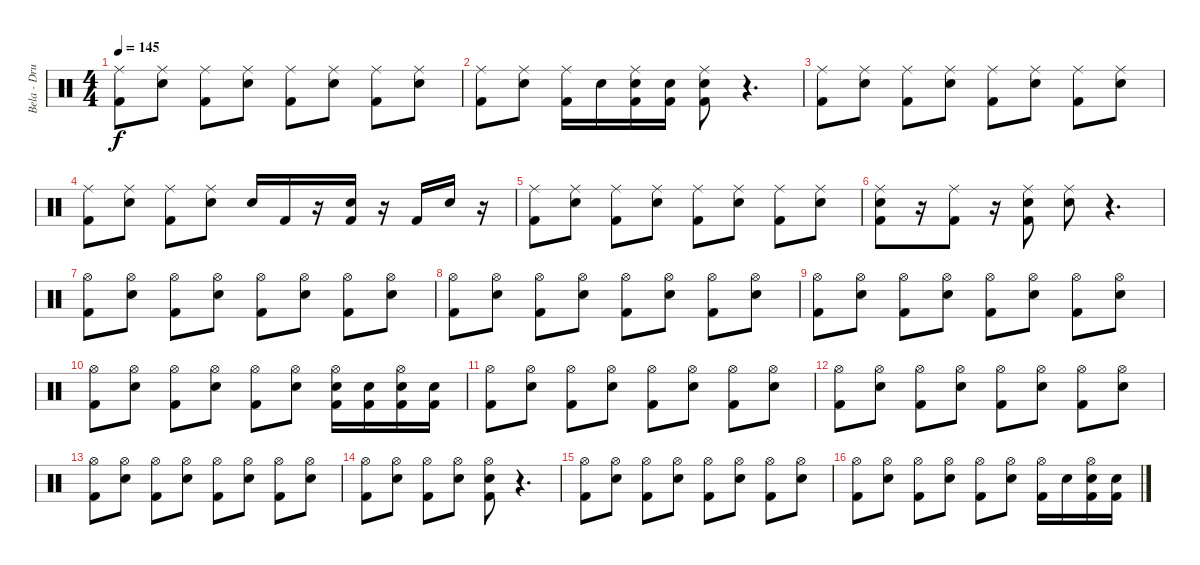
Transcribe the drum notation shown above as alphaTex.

\track ("Bela - Drums" "Bela - Dru") {instrument percussion}
\staff {score}
\articulation defaults
\ts (4 4)
\tempo 145
\clef neutral
\ks c
("Ride (middle)" "Kick (hit) 2").8{dy f} ("Ride (middle)" "Electric Snare (hit)").8 ("Ride (middle)" "Kick (hit) 2").8 ("Ride (middle)" "Electric Snare (hit)").8 ("Ride (middle)" "Kick (hit) 2").8 ("Ride (middle)" "Electric Snare (hit)").8 ("Ride (middle)" "Kick (hit) 2").8 ("Ride (middle)" "Electric Snare (hit)").8 |
("Ride (middle)" "Kick (hit) 2").8 ("Ride (middle)" "Electric Snare (hit)").8 ("Ride (middle)" "Kick (hit) 2").16 "Electric Snare (hit)".16 ("Electric Snare (hit)" "Kick (hit) 2" "Ride (middle)").16 ("Electric Snare (hit)" "Kick (hit) 2").16 ("Kick (hit) 2" "Ride (middle)" "Electric Snare (hit)").8 r.4{d} |
("Ride (middle)" "Kick (hit) 2").8 ("Ride (middle)" "Electric Snare (hit)").8 ("Ride (middle)" "Kick (hit) 2").8 ("Ride (middle)" "Electric Snare (hit)").8 ("Ride (middle)" "Kick (hit) 2").8 ("Ride (middle)" "Electric Snare (hit)").8 ("Ride (middle)" "Kick (hit) 2").8 ("Ride (middle)" "Electric Snare (hit)").8 |
("Ride (middle)" "Kick (hit) 2").8 ("Ride (middle)" "Electric Snare (hit)").8 ("Ride (middle)" "Kick (hit) 2").8 ("Ride (middle)" "Electric Snare (hit)").8 "Electric Snare (hit)".16 "Kick (hit) 2".16 r.16 ("Electric Snare (hit)" "Kick (hit) 2").16 r.16 "Kick (hit) 2".16 "Electric Snare (hit)".16 r.16 |
("Ride (middle)" "Kick (hit) 2").8 ("Ride (middle)" "Electric Snare (hit)").8 ("Ride (middle)" "Kick (hit) 2").8 ("Ride (middle)" "Electric Snare (hit)").8 ("Ride (middle)" "Kick (hit) 2").8 ("Ride (middle)" "Electric Snare (hit)").8 ("Ride (middle)" "Kick (hit) 2").8 ("Electric Snare (hit)" "Ride (middle)").8 |
("Ride (middle)" "Kick (hit) 2" "Electric Snare (hit)").8 r.16 ("Ride (middle)" "Kick (hit) 2").8 r.16 ("Electric Snare (hit)" "Ride (middle)" "Kick (hit) 2").8 ("Electric Snare (hit)" "Ride (middle)").8 r.4{d} |
("Hi-Hat (open)" "Kick (hit) 2").8 ("Hi-Hat (open)" "Electric Snare (hit)").8 ("Hi-Hat (open)" "Kick (hit) 2").8 ("Hi-Hat (open)" "Electric Snare (hit)").8 ("Hi-Hat (open)" "Kick (hit) 2").8 ("Hi-Hat (open)" "Electric Snare (hit)").8 ("Hi-Hat (open)" "Kick (hit) 2").8 ("Hi-Hat (open)" "Electric Snare (hit)").8 |
("Hi-Hat (open)" "Kick (hit) 2").8 ("Hi-Hat (open)" "Electric Snare (hit)").8 ("Hi-Hat (open)" "Kick (hit) 2").8 ("Hi-Hat (open)" "Electric Snare (hit)").8 ("Hi-Hat (open)" "Kick (hit) 2").8 ("Hi-Hat (open)" "Electric Snare (hit)").8 ("Hi-Hat (open)" "Kick (hit) 2").8 ("Hi-Hat (open)" "Electric Snare (hit)").8 |
("Hi-Hat (open)" "Kick (hit) 2").8 ("Hi-Hat (open)" "Electric Snare (hit)").8 ("Hi-Hat (open)" "Kick (hit) 2").8 ("Hi-Hat (open)" "Electric Snare (hit)").8 ("Hi-Hat (open)" "Kick (hit) 2").8 ("Hi-Hat (open)" "Electric Snare (hit)").8 ("Hi-Hat (open)" "Kick (hit) 2").8 ("Hi-Hat (open)" "Electric Snare (hit)").8 |
("Hi-Hat (open)" "Kick (hit) 2").8 ("Hi-Hat (open)" "Electric Snare (hit)").8 ("Hi-Hat (open)" "Kick (hit) 2").8 ("Hi-Hat (open)" "Electric Snare (hit)").8 ("Hi-Hat (open)" "Kick (hit) 2").8 ("Hi-Hat (open)" "Electric Snare (hit)").8 ("Electric Snare (hit)" "Hi-Hat (open)" "Kick (hit) 2").16 ("Kick (hit) 2" "Electric Snare (hit)").16 ("Kick (hit) 2" "Hi-Hat (open)" "Electric Snare (hit)").16 ("Electric Snare (hit)" "Kick (hit) 2").16 |
("Hi-Hat (open)" "Kick (hit) 2").8 ("Hi-Hat (open)" "Electric Snare (hit)").8 ("Hi-Hat (open)" "Kick (hit) 2").8 ("Hi-Hat (open)" "Electric Snare (hit)").8 ("Hi-Hat (open)" "Kick (hit) 2").8 ("Hi-Hat (open)" "Electric Snare (hit)").8 ("Hi-Hat (open)" "Kick (hit) 2").8 ("Hi-Hat (open)" "Electric Snare (hit)").8 |
("Hi-Hat (open)" "Kick (hit) 2").8 ("Hi-Hat (open)" "Electric Snare (hit)").8 ("Hi-Hat (open)" "Kick (hit) 2").8 ("Hi-Hat (open)" "Electric Snare (hit)").8 ("Hi-Hat (open)" "Kick (hit) 2").8 ("Hi-Hat (open)" "Electric Snare (hit)").8 ("Hi-Hat (open)" "Kick (hit) 2").8 ("Hi-Hat (open)" "Electric Snare (hit)").8 |
("Hi-Hat (open)" "Kick (hit) 2").8 ("Hi-Hat (open)" "Electric Snare (hit)").8 ("Hi-Hat (open)" "Kick (hit) 2").8 ("Hi-Hat (open)" "Electric Snare (hit)").8 ("Hi-Hat (open)" "Kick (hit) 2").8 ("Hi-Hat (open)" "Electric Snare (hit)").8 ("Hi-Hat (open)" "Kick (hit) 2").8 ("Hi-Hat (open)" "Electric Snare (hit)").8 |
("Hi-Hat (open)" "Kick (hit) 2").8 ("Hi-Hat (open)" "Electric Snare (hit)").8 ("Hi-Hat (open)" "Kick (hit) 2").8 ("Hi-Hat (open)" "Electric Snare (hit)").8 ("Electric Snare (hit)" "Hi-Hat (open)" "Kick (hit) 2").8 r.4{d} |
("Hi-Hat (open)" "Kick (hit) 2").8 ("Hi-Hat (open)" "Electric Snare (hit)").8 ("Hi-Hat (open)" "Kick (hit) 2").8 ("Hi-Hat (open)" "Electric Snare (hit)").8 ("Hi-Hat (open)" "Kick (hit) 2").8 ("Hi-Hat (open)" "Electric Snare (hit)").8 ("Hi-Hat (open)" "Kick (hit) 2").8 ("Hi-Hat (open)" "Electric Snare (hit)").8 |
("Hi-Hat (open)" "Kick (hit) 2").8 ("Hi-Hat (open)" "Electric Snare (hit)").8 ("Hi-Hat (open)" "Kick (hit) 2").8 ("Hi-Hat (open)" "Electric Snare (hit)").8 ("Hi-Hat (open)" "Kick (hit) 2").8 ("Hi-Hat (open)" "Electric Snare (hit)").8 ("Hi-Hat (open)" "Kick (hit) 2").16 "Electric Snare (hit)".16 ("Kick (hit) 2" "Hi-Hat (open)" "Electric Snare (hit)").16 ("Kick (hit) 2" "Electric Snare (hit)").16
